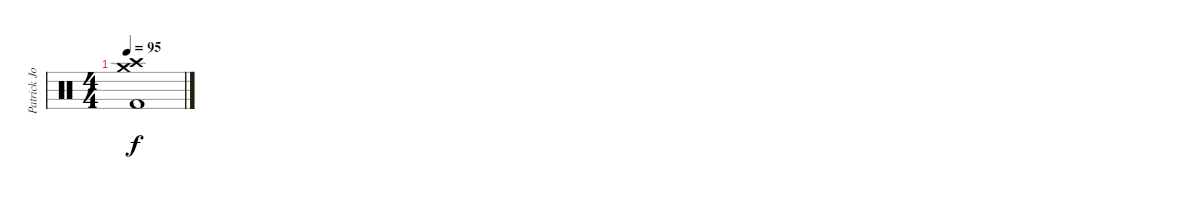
\track ("Patrick Johansson" "Patrick Jo") {instrument percussion}
\staff {score}
\articulation defaults
\ts (4 4)
\tempo 95
\clef neutral
\ks c
("Crash medium (hit)" "Crash high (hit)" "Kick (hit) 2").1{dy f}
